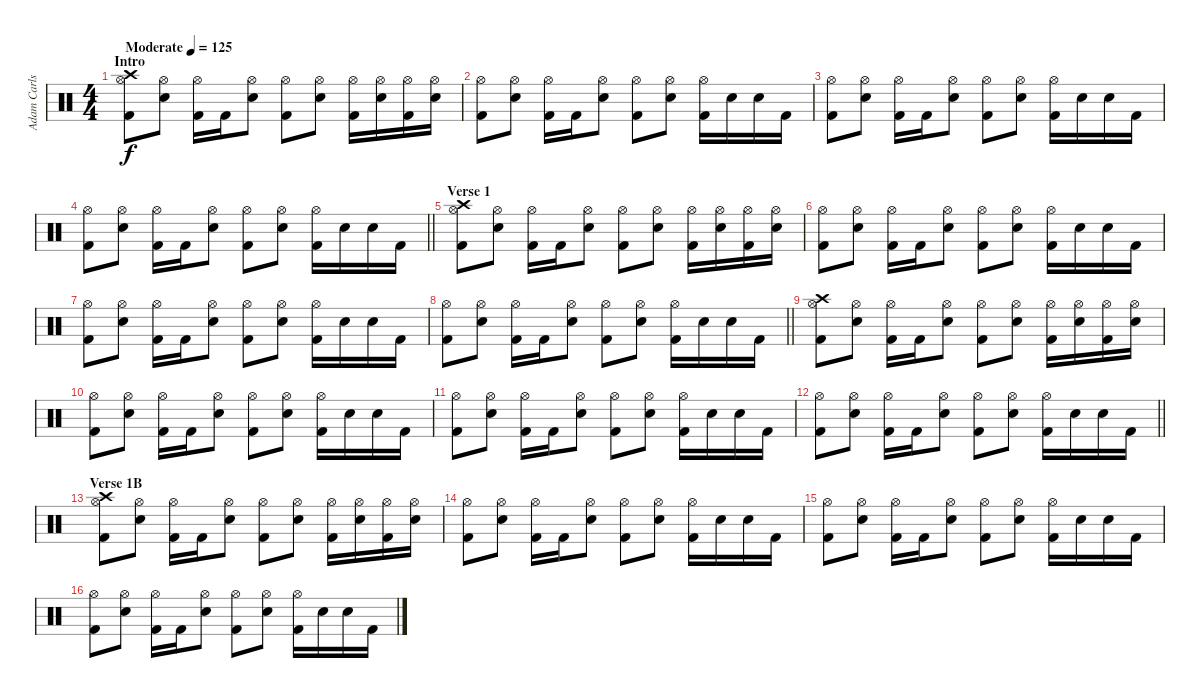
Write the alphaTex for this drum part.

\track ("Adam Carlson" "Adam Carls") {instrument percussion}
\staff {score}
\articulation defaults
\ts (4 4)
\section ("" "Intro ")
\tempo (125 "Moderate")
\clef neutral
\ks c
("Crash high (hit)" "Hi-Hat (open)" "Kick (hit) 2").8{dy f} ("Hi-Hat (open)" "Electric Snare (hit)").8 ("Hi-Hat (open)" "Kick (hit) 2").16 "Kick (hit) 2".16 ("Hi-Hat (open)" "Electric Snare (hit)").8 ("Hi-Hat (open)" "Kick (hit) 2").8 ("Hi-Hat (open)" "Electric Snare (hit)").8 ("Hi-Hat (open)" "Kick (hit) 2").16 ("Hi-Hat (open)" "Electric Snare (hit)").16 ("Hi-Hat (open)" "Kick (hit) 2").16 ("Electric Snare (hit)" "Hi-Hat (open)").16 |
("Hi-Hat (open)" "Kick (hit) 2").8 ("Hi-Hat (open)" "Electric Snare (hit)").8 ("Hi-Hat (open)" "Kick (hit) 2").16 "Kick (hit) 2".16 ("Hi-Hat (open)" "Electric Snare (hit)").8 ("Hi-Hat (open)" "Kick (hit) 2").8 ("Hi-Hat (open)" "Electric Snare (hit)").8 ("Hi-Hat (open)" "Kick (hit) 2").16 "Electric Snare (hit)".16 "Electric Snare (hit)".16 "Kick (hit) 2".16 |
("Hi-Hat (open)" "Kick (hit) 2").8 ("Hi-Hat (open)" "Electric Snare (hit)").8 ("Hi-Hat (open)" "Kick (hit) 2").16 "Kick (hit) 2".16 ("Hi-Hat (open)" "Electric Snare (hit)").8 ("Hi-Hat (open)" "Kick (hit) 2").8 ("Hi-Hat (open)" "Electric Snare (hit)").8 ("Hi-Hat (open)" "Kick (hit) 2").16 "Electric Snare (hit)".16 "Electric Snare (hit)".16 "Kick (hit) 2".16 |
\barLineRight lightlight
("Hi-Hat (open)" "Kick (hit) 2").8 ("Hi-Hat (open)" "Electric Snare (hit)").8 ("Hi-Hat (open)" "Kick (hit) 2").16 "Kick (hit) 2".16 ("Hi-Hat (open)" "Electric Snare (hit)").8 ("Hi-Hat (open)" "Kick (hit) 2").8 ("Hi-Hat (open)" "Electric Snare (hit)").8 ("Hi-Hat (open)" "Kick (hit) 2").16 "Electric Snare (hit)".16 "Electric Snare (hit)".16 "Kick (hit) 2".16 |
\section ("" "Verse 1")
("Crash high (hit)" "Hi-Hat (open)" "Kick (hit) 2").8 ("Hi-Hat (open)" "Electric Snare (hit)").8 ("Hi-Hat (open)" "Kick (hit) 2").16 "Kick (hit) 2".16 ("Hi-Hat (open)" "Electric Snare (hit)").8 ("Hi-Hat (open)" "Kick (hit) 2").8 ("Hi-Hat (open)" "Electric Snare (hit)").8 ("Hi-Hat (open)" "Kick (hit) 2").16 ("Hi-Hat (open)" "Electric Snare (hit)").16 ("Hi-Hat (open)" "Kick (hit) 2").16 ("Electric Snare (hit)" "Hi-Hat (open)").16 |
("Hi-Hat (open)" "Kick (hit) 2").8 ("Hi-Hat (open)" "Electric Snare (hit)").8 ("Hi-Hat (open)" "Kick (hit) 2").16 "Kick (hit) 2".16 ("Hi-Hat (open)" "Electric Snare (hit)").8 ("Hi-Hat (open)" "Kick (hit) 2").8 ("Hi-Hat (open)" "Electric Snare (hit)").8 ("Hi-Hat (open)" "Kick (hit) 2").16 "Electric Snare (hit)".16 "Electric Snare (hit)".16 "Kick (hit) 2".16 |
("Hi-Hat (open)" "Kick (hit) 2").8 ("Hi-Hat (open)" "Electric Snare (hit)").8 ("Hi-Hat (open)" "Kick (hit) 2").16 "Kick (hit) 2".16 ("Hi-Hat (open)" "Electric Snare (hit)").8 ("Hi-Hat (open)" "Kick (hit) 2").8 ("Hi-Hat (open)" "Electric Snare (hit)").8 ("Hi-Hat (open)" "Kick (hit) 2").16 "Electric Snare (hit)".16 "Electric Snare (hit)".16 "Kick (hit) 2".16 |
\barLineRight lightlight
("Hi-Hat (open)" "Kick (hit) 2").8 ("Hi-Hat (open)" "Electric Snare (hit)").8 ("Hi-Hat (open)" "Kick (hit) 2").16 "Kick (hit) 2".16 ("Hi-Hat (open)" "Electric Snare (hit)").8 ("Hi-Hat (open)" "Kick (hit) 2").8 ("Hi-Hat (open)" "Electric Snare (hit)").8 ("Hi-Hat (open)" "Kick (hit) 2").16 "Electric Snare (hit)".16 "Electric Snare (hit)".16 "Kick (hit) 2".16 |
("Crash high (hit)" "Hi-Hat (open)" "Kick (hit) 2").8 ("Hi-Hat (open)" "Electric Snare (hit)").8 ("Hi-Hat (open)" "Kick (hit) 2").16 "Kick (hit) 2".16 ("Hi-Hat (open)" "Electric Snare (hit)").8 ("Hi-Hat (open)" "Kick (hit) 2").8 ("Hi-Hat (open)" "Electric Snare (hit)").8 ("Hi-Hat (open)" "Kick (hit) 2").16 ("Hi-Hat (open)" "Electric Snare (hit)").16 ("Hi-Hat (open)" "Kick (hit) 2").16 ("Electric Snare (hit)" "Hi-Hat (open)").16 |
("Hi-Hat (open)" "Kick (hit) 2").8 ("Hi-Hat (open)" "Electric Snare (hit)").8 ("Hi-Hat (open)" "Kick (hit) 2").16 "Kick (hit) 2".16 ("Hi-Hat (open)" "Electric Snare (hit)").8 ("Hi-Hat (open)" "Kick (hit) 2").8 ("Hi-Hat (open)" "Electric Snare (hit)").8 ("Hi-Hat (open)" "Kick (hit) 2").16 "Electric Snare (hit)".16 "Electric Snare (hit)".16 "Kick (hit) 2".16 |
("Hi-Hat (open)" "Kick (hit) 2").8 ("Hi-Hat (open)" "Electric Snare (hit)").8 ("Hi-Hat (open)" "Kick (hit) 2").16 "Kick (hit) 2".16 ("Hi-Hat (open)" "Electric Snare (hit)").8 ("Hi-Hat (open)" "Kick (hit) 2").8 ("Hi-Hat (open)" "Electric Snare (hit)").8 ("Hi-Hat (open)" "Kick (hit) 2").16 "Electric Snare (hit)".16 "Electric Snare (hit)".16 "Kick (hit) 2".16 |
\barLineRight lightlight
("Hi-Hat (open)" "Kick (hit) 2").8 ("Hi-Hat (open)" "Electric Snare (hit)").8 ("Hi-Hat (open)" "Kick (hit) 2").16 "Kick (hit) 2".16 ("Hi-Hat (open)" "Electric Snare (hit)").8 ("Hi-Hat (open)" "Kick (hit) 2").8 ("Hi-Hat (open)" "Electric Snare (hit)").8 ("Hi-Hat (open)" "Kick (hit) 2").16 "Electric Snare (hit)".16 "Electric Snare (hit)".16 "Kick (hit) 2".16 |
\section ("" "Verse 1B")
("Crash high (hit)" "Hi-Hat (open)" "Kick (hit) 2").8 ("Hi-Hat (open)" "Electric Snare (hit)").8 ("Hi-Hat (open)" "Kick (hit) 2").16 "Kick (hit) 2".16 ("Hi-Hat (open)" "Electric Snare (hit)").8 ("Hi-Hat (open)" "Kick (hit) 2").8 ("Hi-Hat (open)" "Electric Snare (hit)").8 ("Hi-Hat (open)" "Kick (hit) 2").16 ("Hi-Hat (open)" "Electric Snare (hit)").16 ("Hi-Hat (open)" "Kick (hit) 2").16 ("Electric Snare (hit)" "Hi-Hat (open)").16 |
("Hi-Hat (open)" "Kick (hit) 2").8 ("Hi-Hat (open)" "Electric Snare (hit)").8 ("Hi-Hat (open)" "Kick (hit) 2").16 "Kick (hit) 2".16 ("Hi-Hat (open)" "Electric Snare (hit)").8 ("Hi-Hat (open)" "Kick (hit) 2").8 ("Hi-Hat (open)" "Electric Snare (hit)").8 ("Hi-Hat (open)" "Kick (hit) 2").16 "Electric Snare (hit)".16 "Electric Snare (hit)".16 "Kick (hit) 2".16 |
("Hi-Hat (open)" "Kick (hit) 2").8 ("Hi-Hat (open)" "Electric Snare (hit)").8 ("Hi-Hat (open)" "Kick (hit) 2").16 "Kick (hit) 2".16 ("Hi-Hat (open)" "Electric Snare (hit)").8 ("Hi-Hat (open)" "Kick (hit) 2").8 ("Hi-Hat (open)" "Electric Snare (hit)").8 ("Hi-Hat (open)" "Kick (hit) 2").16 "Electric Snare (hit)".16 "Electric Snare (hit)".16 "Kick (hit) 2".16 |
("Hi-Hat (open)" "Kick (hit) 2").8 ("Hi-Hat (open)" "Electric Snare (hit)").8 ("Hi-Hat (open)" "Kick (hit) 2").16 "Kick (hit) 2".16 ("Hi-Hat (open)" "Electric Snare (hit)").8 ("Hi-Hat (open)" "Kick (hit) 2").8 ("Hi-Hat (open)" "Electric Snare (hit)").8 ("Hi-Hat (open)" "Kick (hit) 2").16 "Electric Snare (hit)".16 "Electric Snare (hit)".16 "Kick (hit) 2".16
